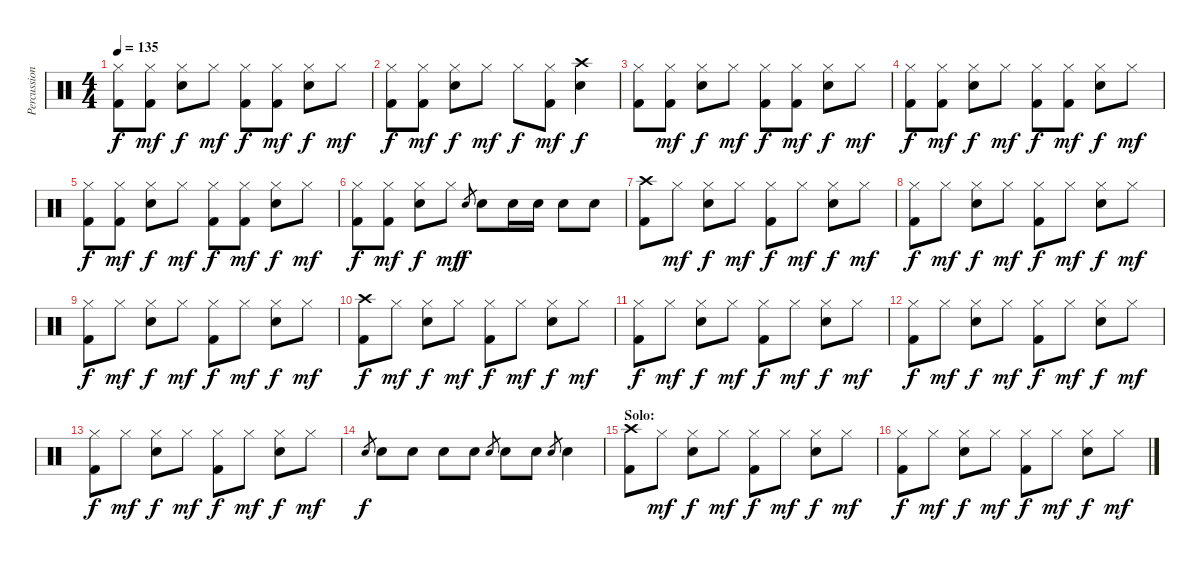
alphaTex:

\track ("Percussion" "Percussion") {instrument percussion}
\staff {score}
\articulation defaults
\ts (4 4)
\tempo 135
\clef neutral
\ks c
("Hi-Hat (closed)" "Kick (hit) 2").8{dy f} ("Hi-Hat (closed)" "Kick (hit) 2").8{dy mf} ("Hi-Hat (closed)" "Snare (hit) 2").8{dy f} "Hi-Hat (closed)".8{dy mf} ("Hi-Hat (closed)" "Kick (hit) 2").8{dy f} ("Hi-Hat (closed)" "Kick (hit) 2").8{dy mf} ("Hi-Hat (closed)" "Snare (hit) 2").8{dy f} "Hi-Hat (closed)".8{dy mf} |
("Hi-Hat (closed)" "Kick (hit) 2").8{dy f} ("Hi-Hat (closed)" "Kick (hit) 2").8{dy mf} ("Hi-Hat (closed)" "Snare (hit) 2").8{dy f} "Hi-Hat (closed)".8{dy mf} "Hi-Hat (closed)".8{dy f} ("Hi-Hat (closed)" "Kick (hit) 2").8{dy mf} ("Crash high (hit)" "Snare (hit) 2").4{dy f} |
("Hi-Hat (closed)" "Kick (hit) 2").8 ("Hi-Hat (closed)" "Kick (hit) 2").8{dy mf} ("Hi-Hat (closed)" "Snare (hit) 2").8{dy f} "Hi-Hat (closed)".8{dy mf} ("Hi-Hat (closed)" "Kick (hit) 2").8{dy f} ("Hi-Hat (closed)" "Kick (hit) 2").8{dy mf} ("Hi-Hat (closed)" "Snare (hit) 2").8{dy f} "Hi-Hat (closed)".8{dy mf} |
("Hi-Hat (closed)" "Kick (hit) 2").8{dy f} ("Hi-Hat (closed)" "Kick (hit) 2").8{dy mf} ("Hi-Hat (closed)" "Snare (hit) 2").8{dy f} "Hi-Hat (closed)".8{dy mf} ("Hi-Hat (closed)" "Kick (hit) 2").8{dy f} ("Hi-Hat (closed)" "Kick (hit) 2").8{dy mf} ("Hi-Hat (closed)" "Snare (hit) 2").8{dy f} "Hi-Hat (closed)".8{dy mf} |
("Hi-Hat (closed)" "Kick (hit) 2").8{dy f} ("Hi-Hat (closed)" "Kick (hit) 2").8{dy mf} ("Hi-Hat (closed)" "Snare (hit) 2").8{dy f} "Hi-Hat (closed)".8{dy mf} ("Hi-Hat (closed)" "Kick (hit) 2").8{dy f} ("Hi-Hat (closed)" "Kick (hit) 2").8{dy mf} ("Hi-Hat (closed)" "Snare (hit) 2").8{dy f} "Hi-Hat (closed)".8{dy mf} |
("Hi-Hat (closed)" "Kick (hit) 2").8{dy f} ("Hi-Hat (closed)" "Kick (hit) 2").8{dy mf} ("Hi-Hat (closed)" "Snare (hit) 2").8{dy f} "Hi-Hat (closed)".8{dy mf} "Snare (hit) 2".8{gr dy f} "Snare (hit) 2".8 "Snare (hit) 2".16 "Snare (hit) 2".16 "Snare (hit) 2".8 "Snare (hit) 2".8 |
("Crash high (hit)" "Kick (hit) 2").8 "Hi-Hat (closed)".8{dy mf} ("Hi-Hat (closed)" "Snare (hit) 2").8{dy f} "Hi-Hat (closed)".8{dy mf} ("Hi-Hat (closed)" "Kick (hit) 2").8{dy f} "Hi-Hat (closed)".8{dy mf} ("Hi-Hat (closed)" "Snare (hit) 2").8{dy f} "Hi-Hat (closed)".8{dy mf} |
("Hi-Hat (closed)" "Kick (hit) 2").8{dy f} "Hi-Hat (closed)".8{dy mf} ("Hi-Hat (closed)" "Snare (hit) 2").8{dy f} "Hi-Hat (closed)".8{dy mf} ("Hi-Hat (closed)" "Kick (hit) 2").8{dy f} "Hi-Hat (closed)".8{dy mf} ("Hi-Hat (closed)" "Snare (hit) 2").8{dy f} "Hi-Hat (closed)".8{dy mf} |
("Hi-Hat (closed)" "Kick (hit) 2").8{dy f} "Hi-Hat (closed)".8{dy mf} ("Hi-Hat (closed)" "Snare (hit) 2").8{dy f} "Hi-Hat (closed)".8{dy mf} ("Hi-Hat (closed)" "Kick (hit) 2").8{dy f} "Hi-Hat (closed)".8{dy mf} ("Hi-Hat (closed)" "Snare (hit) 2").8{dy f} "Hi-Hat (closed)".8{dy mf} |
("Crash high (hit)" "Kick (hit) 2").8{dy f} "Hi-Hat (closed)".8{dy mf} ("Hi-Hat (closed)" "Snare (hit) 2").8{dy f} "Hi-Hat (closed)".8{dy mf} ("Hi-Hat (closed)" "Kick (hit) 2").8{dy f} "Hi-Hat (closed)".8{dy mf} ("Hi-Hat (closed)" "Snare (hit) 2").8{dy f} "Hi-Hat (closed)".8{dy mf} |
("Hi-Hat (closed)" "Kick (hit) 2").8{dy f} "Hi-Hat (closed)".8{dy mf} ("Hi-Hat (closed)" "Snare (hit) 2").8{dy f} "Hi-Hat (closed)".8{dy mf} ("Hi-Hat (closed)" "Kick (hit) 2").8{dy f} "Hi-Hat (closed)".8{dy mf} ("Hi-Hat (closed)" "Snare (hit) 2").8{dy f} "Hi-Hat (closed)".8{dy mf} |
("Hi-Hat (closed)" "Kick (hit) 2").8{dy f} "Hi-Hat (closed)".8{dy mf} ("Hi-Hat (closed)" "Snare (hit) 2").8{dy f} "Hi-Hat (closed)".8{dy mf} ("Hi-Hat (closed)" "Kick (hit) 2").8{dy f} "Hi-Hat (closed)".8{dy mf} ("Hi-Hat (closed)" "Snare (hit) 2").8{dy f} "Hi-Hat (closed)".8{dy mf} |
("Hi-Hat (closed)" "Kick (hit) 2").8{dy f} "Hi-Hat (closed)".8{dy mf} ("Hi-Hat (closed)" "Snare (hit) 2").8{dy f} "Hi-Hat (closed)".8{dy mf} ("Hi-Hat (closed)" "Kick (hit) 2").8{dy f} "Hi-Hat (closed)".8{dy mf} ("Hi-Hat (closed)" "Snare (hit) 2").8{dy f} "Hi-Hat (closed)".8{dy mf} |
"Snare (hit) 2".8{gr dy f} "Snare (hit) 2".8 "Snare (hit) 2".8 "Snare (hit) 2".8 "Snare (hit) 2".8 "Snare (hit) 2".8{gr} "Snare (hit) 2".8 "Snare (hit) 2".8 "Snare (hit) 2".8{gr} "Snare (hit) 2".4 |
\section ("" "Solo:")
("Crash high (hit)" "Kick (hit) 2").8 "Hi-Hat (closed)".8{dy mf} ("Hi-Hat (closed)" "Snare (hit) 2").8{dy f} "Hi-Hat (closed)".8{dy mf} ("Hi-Hat (closed)" "Kick (hit) 2").8{dy f} "Hi-Hat (closed)".8{dy mf} ("Hi-Hat (closed)" "Snare (hit) 2").8{dy f} "Hi-Hat (closed)".8{dy mf} |
("Hi-Hat (closed)" "Kick (hit) 2").8{dy f} "Hi-Hat (closed)".8{dy mf} ("Hi-Hat (closed)" "Snare (hit) 2").8{dy f} "Hi-Hat (closed)".8{dy mf} ("Hi-Hat (closed)" "Kick (hit) 2").8{dy f} "Hi-Hat (closed)".8{dy mf} ("Hi-Hat (closed)" "Snare (hit) 2").8{dy f} "Hi-Hat (closed)".8{dy mf}
